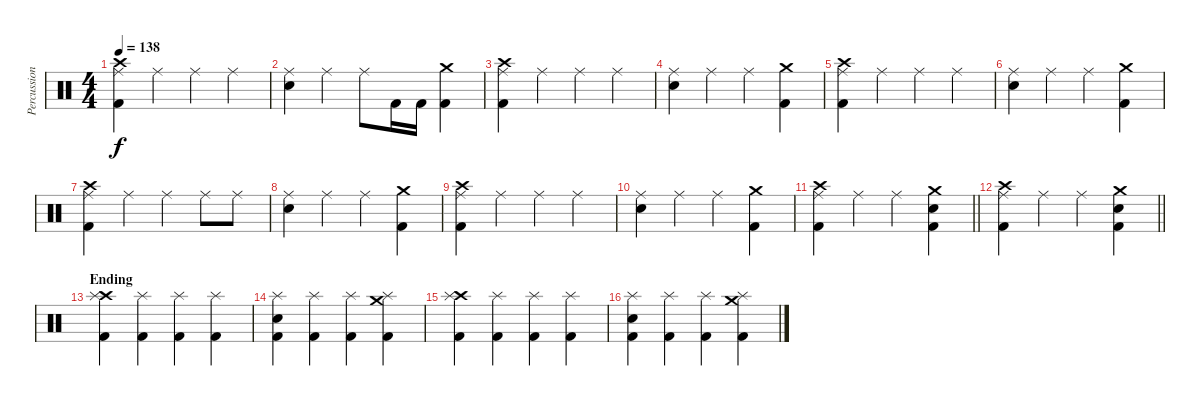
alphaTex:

\track ("Percussions" "Percussion") {instrument percussion}
\staff {score}
\articulation defaults
\ts (4 4)
\tempo 138
\clef neutral
\ks c
("Crash high (hit)" "Ride (middle)" "Kick (hit) 2").4{dy f} "Ride (middle)".4 "Ride (middle)".4 "Ride (middle)".4 |
("Ride (middle)" "Snare (hit) 2").4 "Ride (middle)".4 "Ride (middle)".8 "Kick (hit) 2".16 "Kick (hit) 2".16 ("Crash medium (hit)" "Kick (hit) 2").4 |
("Crash high (hit)" "Ride (middle)" "Kick (hit) 2").4 "Ride (middle)".4 "Ride (middle)".4 "Ride (middle)".4 |
("Ride (middle)" "Snare (hit) 2").4 "Ride (middle)".4 "Ride (middle)".4 ("Crash medium (hit)" "Kick (hit) 2").4 |
("Crash high (hit)" "Ride (middle)" "Kick (hit) 2").4 "Ride (middle)".4 "Ride (middle)".4 "Ride (middle)".4 |
("Ride (middle)" "Snare (hit) 2").4 "Ride (middle)".4 "Ride (middle)".4 ("Crash medium (hit)" "Kick (hit) 2").4 |
("Crash high (hit)" "Ride (middle)" "Kick (hit) 2").4 "Ride (middle)".4 "Ride (middle)".4 "Ride (middle)".8 "Ride (middle)".8 |
("Ride (middle)" "Snare (hit) 2").4 "Ride (middle)".4 "Ride (middle)".4 ("Crash medium (hit)" "Kick (hit) 2").4 |
("Crash high (hit)" "Ride (middle)" "Kick (hit) 2").4 "Ride (middle)".4 "Ride (middle)".4 "Ride (middle)".4 |
("Ride (middle)" "Snare (hit) 2").4 "Ride (middle)".4 "Ride (middle)".4 ("Crash medium (hit)" "Kick (hit) 2").4 |
\barLineRight lightlight
("Crash high (hit)" "Ride (middle)" "Kick (hit) 2").4 "Ride (middle)".4 "Ride (middle)".4 ("Crash medium (hit)" "Snare (hit) 2" "Kick (hit) 2").4 |
\barLineRight lightlight
("Crash high (hit)" "Ride (middle)" "Kick (hit) 2").4 "Ride (middle)".4 "Ride (middle)".4 ("Crash medium (hit)" "Snare (hit) 2" "Kick (hit) 2").4 |
\section ("" "Ending")
("Crash high (hit)" "Splash (hit)" "Kick (hit) 2").4 ("Splash (hit)" "Kick (hit) 2").4 ("Splash (hit)" "Kick (hit) 2").4 ("Splash (hit)" "Kick (hit) 2").4 |
("Splash (hit)" "Snare (hit) 2" "Kick (hit) 2").4 ("Splash (hit)" "Kick (hit) 2").4 ("Splash (hit)" "Kick (hit) 2").4 ("Crash medium (hit)" "Splash (hit)" "Kick (hit) 2").4 |
("Crash high (hit)" "Splash (hit)" "Kick (hit) 2").4 ("Splash (hit)" "Kick (hit) 2").4 ("Splash (hit)" "Kick (hit) 2").4 ("Splash (hit)" "Kick (hit) 2").4 |
("Splash (hit)" "Snare (hit) 2" "Kick (hit) 2").4 ("Splash (hit)" "Kick (hit) 2").4 ("Splash (hit)" "Kick (hit) 2").4 ("Crash medium (hit)" "Splash (hit)" "Kick (hit) 2").4
